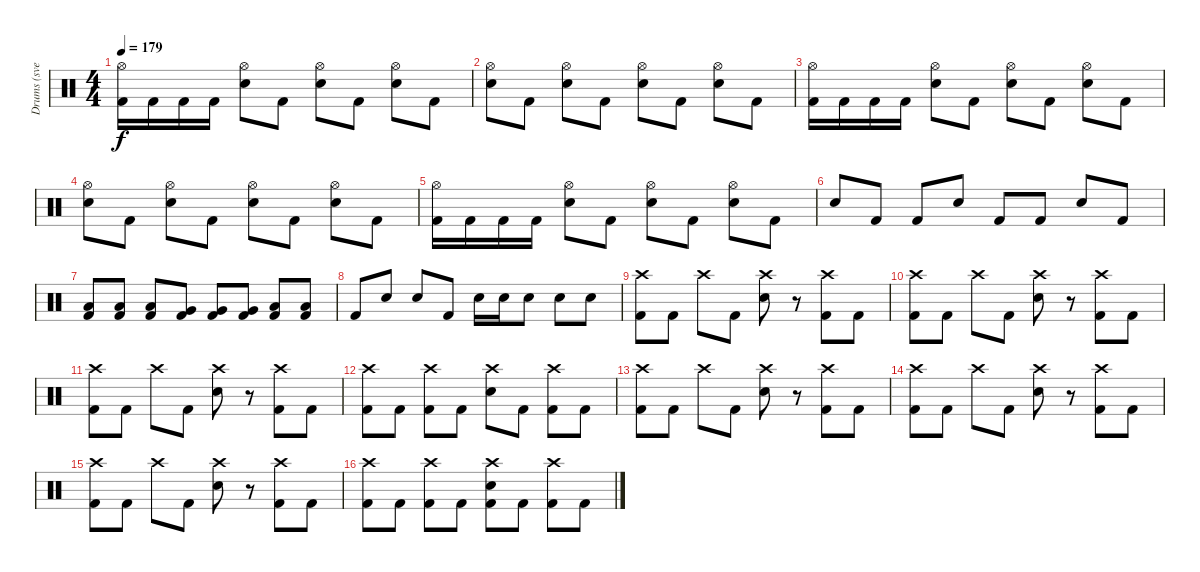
\track ("Drums (svelle)" "Drums (sve") {instrument percussion}
\staff {score}
\articulation defaults
\ts (4 4)
\tempo 179
\clef neutral
\ks c
("Hi-Hat (open)" "Kick (hit) 2").16{dy f} "Kick (hit) 2".16 "Kick (hit) 2".16 "Kick (hit) 2".16 ("Hi-Hat (open)" "Electric Snare (hit)").8 "Kick (hit) 2".8 ("Hi-Hat (open)" "Electric Snare (hit)").8 "Kick (hit) 2".8 ("Hi-Hat (open)" "Electric Snare (hit)").8 "Kick (hit) 2".8 |
("Hi-Hat (open)" "Electric Snare (hit)").8 "Kick (hit) 2".8 ("Hi-Hat (open)" "Electric Snare (hit)").8 "Kick (hit) 2".8 ("Hi-Hat (open)" "Electric Snare (hit)").8 "Kick (hit) 2".8 ("Hi-Hat (open)" "Electric Snare (hit)").8 "Kick (hit) 2".8 |
("Hi-Hat (open)" "Kick (hit) 2").16 "Kick (hit) 2".16 "Kick (hit) 2".16 "Kick (hit) 2".16 ("Hi-Hat (open)" "Electric Snare (hit)").8 "Kick (hit) 2".8 ("Hi-Hat (open)" "Electric Snare (hit)").8 "Kick (hit) 2".8 ("Hi-Hat (open)" "Electric Snare (hit)").8 "Kick (hit) 2".8 |
("Hi-Hat (open)" "Electric Snare (hit)").8 "Kick (hit) 2".8 ("Hi-Hat (open)" "Electric Snare (hit)").8 "Kick (hit) 2".8 ("Hi-Hat (open)" "Electric Snare (hit)").8 "Kick (hit) 2".8 ("Hi-Hat (open)" "Electric Snare (hit)").8 "Kick (hit) 2".8 |
("Hi-Hat (open)" "Kick (hit) 2").16 "Kick (hit) 2".16 "Kick (hit) 2".16 "Kick (hit) 2".16 ("Hi-Hat (open)" "Electric Snare (hit)").8 "Kick (hit) 2".8 ("Hi-Hat (open)" "Electric Snare (hit)").8 "Kick (hit) 2".8 ("Hi-Hat (open)" "Electric Snare (hit)").8 "Kick (hit) 2".8 |
"Electric Snare (hit)".8 "Kick (hit) 2".8 "Kick (hit) 2".8 "Electric Snare (hit)".8 "Kick (hit) 2".8 "Kick (hit) 2".8 "Electric Snare (hit)".8 "Kick (hit) 2".8 |
("Low Tom (hit)" "Kick (hit) 2").8 ("Low Tom (hit)" "Kick (hit) 2").8 ("Low Tom (hit)" "Kick (hit) 2").8 ("Very Low Tom (hit)" "Kick (hit) 2").8 ("Very Low Tom (hit)" "Kick (hit) 2").8 ("Very Low Tom (hit)" "Kick (hit) 2").8 ("Low Floor Tom (hit)" "Kick (hit) 2").8 ("Low Floor Tom (hit)" "Kick (hit) 2").8 |
"Kick (hit) 2".8 "Electric Snare (hit)".8 "Electric Snare (hit)".8 "Kick (hit) 2".8 "Electric Snare (hit)".16 "Electric Snare (hit)".16 "Electric Snare (hit)".8 "Electric Snare (hit)".8 "Electric Snare (hit)".8 |
("Crash high (hit)" "Kick (hit) 2").8 "Kick (hit) 2".8 "Crash high (hit)".8 "Kick (hit) 2".8 ("Crash high (hit)" "Electric Snare (hit)").8 r.8 ("Crash high (hit)" "Kick (hit) 2").8 "Kick (hit) 2".8 |
("Crash high (hit)" "Kick (hit) 2").8 "Kick (hit) 2".8 "Crash high (hit)".8 "Kick (hit) 2".8 ("Crash high (hit)" "Electric Snare (hit)").8 r.8 ("Crash high (hit)" "Kick (hit) 2").8 "Kick (hit) 2".8 |
("Crash high (hit)" "Kick (hit) 2").8 "Kick (hit) 2".8 "Crash high (hit)".8 "Kick (hit) 2".8 ("Crash high (hit)" "Electric Snare (hit)").8 r.8 ("Crash high (hit)" "Kick (hit) 2").8 "Kick (hit) 2".8 |
("Crash high (hit)" "Kick (hit) 2").8 "Kick (hit) 2".8 ("Crash high (hit)" "Kick (hit) 2").8 "Kick (hit) 2".8 ("Crash high (hit)" "Electric Snare (hit)").8 "Kick (hit) 2".8 ("Crash high (hit)" "Kick (hit) 2").8 "Kick (hit) 2".8 |
("Crash high (hit)" "Kick (hit) 2").8 "Kick (hit) 2".8 "Crash high (hit)".8 "Kick (hit) 2".8 ("Crash high (hit)" "Electric Snare (hit)").8 r.8 ("Crash high (hit)" "Kick (hit) 2").8 "Kick (hit) 2".8 |
("Crash high (hit)" "Kick (hit) 2").8 "Kick (hit) 2".8 "Crash high (hit)".8 "Kick (hit) 2".8 ("Crash high (hit)" "Electric Snare (hit)").8 r.8 ("Crash high (hit)" "Kick (hit) 2").8 "Kick (hit) 2".8 |
("Crash high (hit)" "Kick (hit) 2").8 "Kick (hit) 2".8 "Crash high (hit)".8 "Kick (hit) 2".8 ("Crash high (hit)" "Electric Snare (hit)").8 r.8 ("Crash high (hit)" "Kick (hit) 2").8 "Kick (hit) 2".8 |
("Crash high (hit)" "Kick (hit) 2").8 "Kick (hit) 2".8 ("Crash high (hit)" "Kick (hit) 2").8 "Kick (hit) 2".8 ("Crash high (hit)" "Electric Snare (hit)" "Kick (hit) 2").8 "Kick (hit) 2".8 ("Crash high (hit)" "Kick (hit) 2").8 "Kick (hit) 2".8
